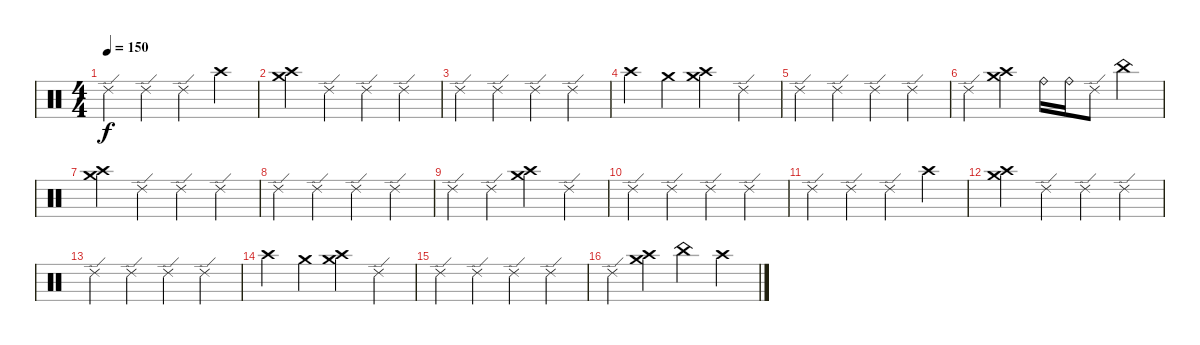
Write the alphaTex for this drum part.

\track "" {instrument percussion}
\staff {score}
\articulation defaults
\ts (4 4)
\tempo 150
\clef neutral
\ks c "Ride (edge) 2".4{dy f} "Ride (edge) 2".4 "Ride (edge) 2".4 "Crash high (hit)".4
|
("Crash medium (hit)" "Crash high (hit)").4 "Ride (edge) 2".4 "Ride (edge) 2".4 "Ride (edge) 2".4 |
"Ride (edge) 2".4 "Ride (edge) 2".4 "Ride (edge) 2".4 "Ride (edge) 2".4 |
"Crash high (hit)".4 "Crash medium (hit)".4 ("Crash medium (hit)" "Crash high (hit)").4 "Ride (edge) 2".4 |
"Ride (edge) 2".4 "Ride (edge) 2".4 "Ride (edge) 2".4 "Ride (edge) 2".4 |
"Ride (edge) 2".4 ("Crash medium (hit)" "Crash high (hit)").4 "Ride (bell)".16 "Ride (bell)".16 "Ride (edge) 2".8 "China (hit)".4 |
("Crash medium (hit)" "Crash high (hit)").4 "Ride (edge) 2".4 "Ride (edge) 2".4 "Ride (edge) 2".4 |
"Ride (edge) 2".4 "Ride (edge) 2".4 "Ride (edge) 2".4 "Ride (edge) 2".4 |
"Ride (edge) 2".4 "Ride (edge) 2".4 ("Crash medium (hit)" "Crash high (hit)").4 "Ride (edge) 2".4 |
"Ride (edge) 2".4 "Ride (edge) 2".4 "Ride (edge) 2".4 "Ride (edge) 2".4 |
"Ride (edge) 2".4 "Ride (edge) 2".4 "Ride (edge) 2".4 "Crash high (hit)".4 |
("Crash medium (hit)" "Crash high (hit)").4 "Ride (edge) 2".4 "Ride (edge) 2".4 "Ride (edge) 2".4 |
"Ride (edge) 2".4 "Ride (edge) 2".4 "Ride (edge) 2".4 "Ride (edge) 2".4 |
"Crash high (hit)".4 "Crash medium (hit)".4 ("Crash medium (hit)" "Crash high (hit)").4 "Ride (edge) 2".4 |
"Ride (edge) 2".4 "Ride (edge) 2".4 "Ride (edge) 2".4 "Ride (edge) 2".4 |
"Ride (edge) 2".4 ("Crash medium (hit)" "Crash high (hit)").4 "China (hit)".4 "Crash high (hit)".4
